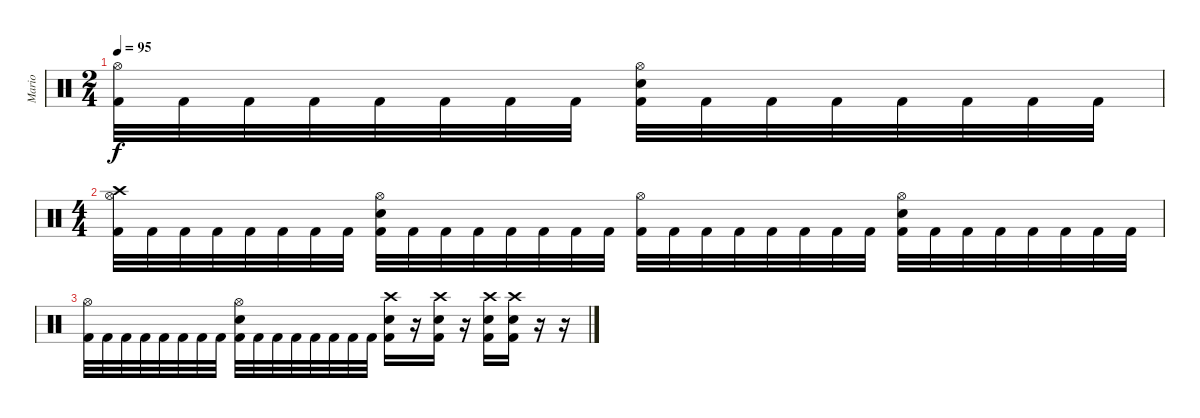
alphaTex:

\track ("Mario" "Mario") {instrument percussion}
\staff {score}
\articulation defaults
\ts (2 4)
\tempo 95
\clef neutral
\ks c
("Hi-Hat (open)" "Kick (hit) 2").32{dy f} "Kick (hit) 2".32 "Kick (hit) 2".32 "Kick (hit) 2".32 "Kick (hit) 2".32 "Kick (hit) 2".32 "Kick (hit) 2".32 "Kick (hit) 2".32 ("Hi-Hat (open)" "Electric Snare (hit)" "Kick (hit) 2").32 "Kick (hit) 2".32 "Kick (hit) 2".32 "Kick (hit) 2".32 "Kick (hit) 2".32 "Kick (hit) 2".32 "Kick (hit) 2".32 "Kick (hit) 2".32 |
\ts (4 4)
("Crash high (hit)" "Hi-Hat (open)" "Kick (hit) 2").32 "Kick (hit) 2".32 "Kick (hit) 2".32 "Kick (hit) 2".32 "Kick (hit) 2".32 "Kick (hit) 2".32 "Kick (hit) 2".32 "Kick (hit) 2".32 ("Hi-Hat (open)" "Electric Snare (hit)" "Kick (hit) 2").32 "Kick (hit) 2".32 "Kick (hit) 2".32 "Kick (hit) 2".32 "Kick (hit) 2".32 "Kick (hit) 2".32 "Kick (hit) 2".32 "Kick (hit) 2".32 ("Hi-Hat (open)" "Kick (hit) 2").32 "Kick (hit) 2".32 "Kick (hit) 2".32 "Kick (hit) 2".32 "Kick (hit) 2".32 "Kick (hit) 2".32 "Kick (hit) 2".32 "Kick (hit) 2".32 ("Hi-Hat (open)" "Electric Snare (hit)" "Kick (hit) 2").32 "Kick (hit) 2".32 "Kick (hit) 2".32 "Kick (hit) 2".32 "Kick (hit) 2".32 "Kick (hit) 2".32 "Kick (hit) 2".32 "Kick (hit) 2".32 |
("Hi-Hat (open)" "Kick (hit) 2").32 "Kick (hit) 2".32 "Kick (hit) 2".32 "Kick (hit) 2".32 "Kick (hit) 2".32 "Kick (hit) 2".32 "Kick (hit) 2".32 "Kick (hit) 2".32 ("Hi-Hat (open)" "Electric Snare (hit)" "Kick (hit) 2").32 "Kick (hit) 2".32 "Kick (hit) 2".32 "Kick (hit) 2".32 "Kick (hit) 2".32 "Kick (hit) 2".32 "Kick (hit) 2".32 "Kick (hit) 2".32 ("Crash high (hit)" "Electric Snare (hit)" "Kick (hit) 2").16 r.16 ("Crash high (hit)" "Electric Snare (hit)" "Kick (hit) 2").16 r.16 ("Crash high (hit)" "Electric Snare (hit)" "Kick (hit) 2").16 ("Crash high (hit)" "Electric Snare (hit)" "Kick (hit) 2").16 r.16 r.16
